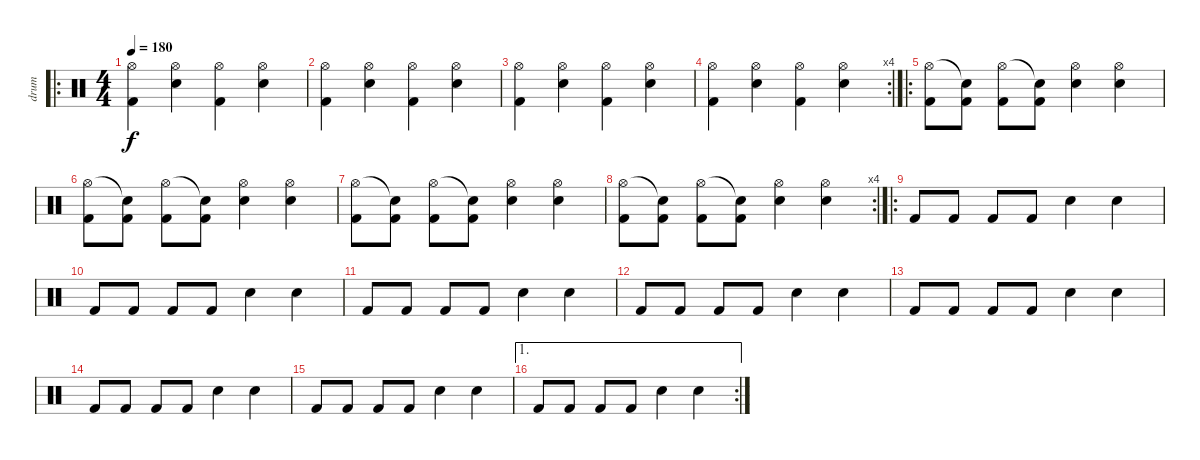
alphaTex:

\track ("drum" "drum") {instrument percussion}
\staff {score}
\articulation defaults
\ro
\ts (4 4)
\tempo 180
\clef neutral
\ks c
("Hi-Hat (open)" "Kick (hit) 2").4{dy f} ("Hi-Hat (open)" "Snare (hit) 2").4 ("Hi-Hat (open)" "Kick (hit) 2").4 ("Hi-Hat (open)" "Snare (hit) 2").4 |
("Hi-Hat (open)" "Kick (hit) 2").4 ("Hi-Hat (open)" "Snare (hit) 2").4 ("Hi-Hat (open)" "Kick (hit) 2").4 ("Hi-Hat (open)" "Snare (hit) 2").4 |
("Hi-Hat (open)" "Kick (hit) 2").4 ("Hi-Hat (open)" "Snare (hit) 2").4 ("Hi-Hat (open)" "Kick (hit) 2").4 ("Hi-Hat (open)" "Snare (hit) 2").4 |
\rc 4
("Hi-Hat (open)" "Kick (hit) 2").4 ("Hi-Hat (open)" "Snare (hit) 2").4 ("Hi-Hat (open)" "Kick (hit) 2").4 ("Hi-Hat (open)" "Snare (hit) 2").4 |
\ro
("Hi-Hat (open)" "Kick (hit) 2").8 ("Snare (hit)"{t} "Kick (hit) 2").8 ("Hi-Hat (open)" "Kick (hit) 2").8 ("Snare (hit)"{t} "Kick (hit) 2").8 ("Hi-Hat (open)" "Snare (hit) 2").4 ("Hi-Hat (open)" "Snare (hit) 2").4 |
("Hi-Hat (open)" "Kick (hit) 2").8 ("Snare (hit)"{t} "Kick (hit) 2").8 ("Hi-Hat (open)" "Kick (hit) 2").8 ("Snare (hit)"{t} "Kick (hit) 2").8 ("Hi-Hat (open)" "Snare (hit) 2").4 ("Hi-Hat (open)" "Snare (hit) 2").4 |
("Hi-Hat (open)" "Kick (hit) 2").8 ("Snare (hit)"{t} "Kick (hit) 2").8 ("Hi-Hat (open)" "Kick (hit) 2").8 ("Snare (hit)"{t} "Kick (hit) 2").8 ("Hi-Hat (open)" "Snare (hit) 2").4 ("Hi-Hat (open)" "Snare (hit) 2").4 |
\rc 4
("Hi-Hat (open)" "Kick (hit) 2").8 ("Snare (hit)"{t} "Kick (hit) 2").8 ("Hi-Hat (open)" "Kick (hit) 2").8 ("Snare (hit)"{t} "Kick (hit) 2").8 ("Hi-Hat (open)" "Snare (hit) 2").4 ("Hi-Hat (open)" "Snare (hit) 2").4 |
\ro "Kick (hit) 2".8 "Kick (hit) 2".8 "Kick (hit) 2".8 "Kick (hit) 2".8 "Snare (hit) 2".4 "Snare (hit) 2".4
|
"Kick (hit) 2".8 "Kick (hit) 2".8 "Kick (hit) 2".8 "Kick (hit) 2".8 "Snare (hit) 2".4 "Snare (hit) 2".4 |
"Kick (hit) 2".8 "Kick (hit) 2".8 "Kick (hit) 2".8 "Kick (hit) 2".8 "Snare (hit) 2".4 "Snare (hit) 2".4 |
"Kick (hit) 2".8 "Kick (hit) 2".8 "Kick (hit) 2".8 "Kick (hit) 2".8 "Snare (hit) 2".4 "Snare (hit) 2".4 |
"Kick (hit) 2".8 "Kick (hit) 2".8 "Kick (hit) 2".8 "Kick (hit) 2".8 "Snare (hit) 2".4 "Snare (hit) 2".4 |
"Kick (hit) 2".8 "Kick (hit) 2".8 "Kick (hit) 2".8 "Kick (hit) 2".8 "Snare (hit) 2".4 "Snare (hit) 2".4 |
"Kick (hit) 2".8 "Kick (hit) 2".8 "Kick (hit) 2".8 "Kick (hit) 2".8 "Snare (hit) 2".4 "Snare (hit) 2".4 |
\ae 1
\rc 2 "Kick (hit) 2".8 "Kick (hit) 2".8 "Kick (hit) 2".8 "Kick (hit) 2".8 "Snare (hit) 2".4 "Snare (hit) 2".4
